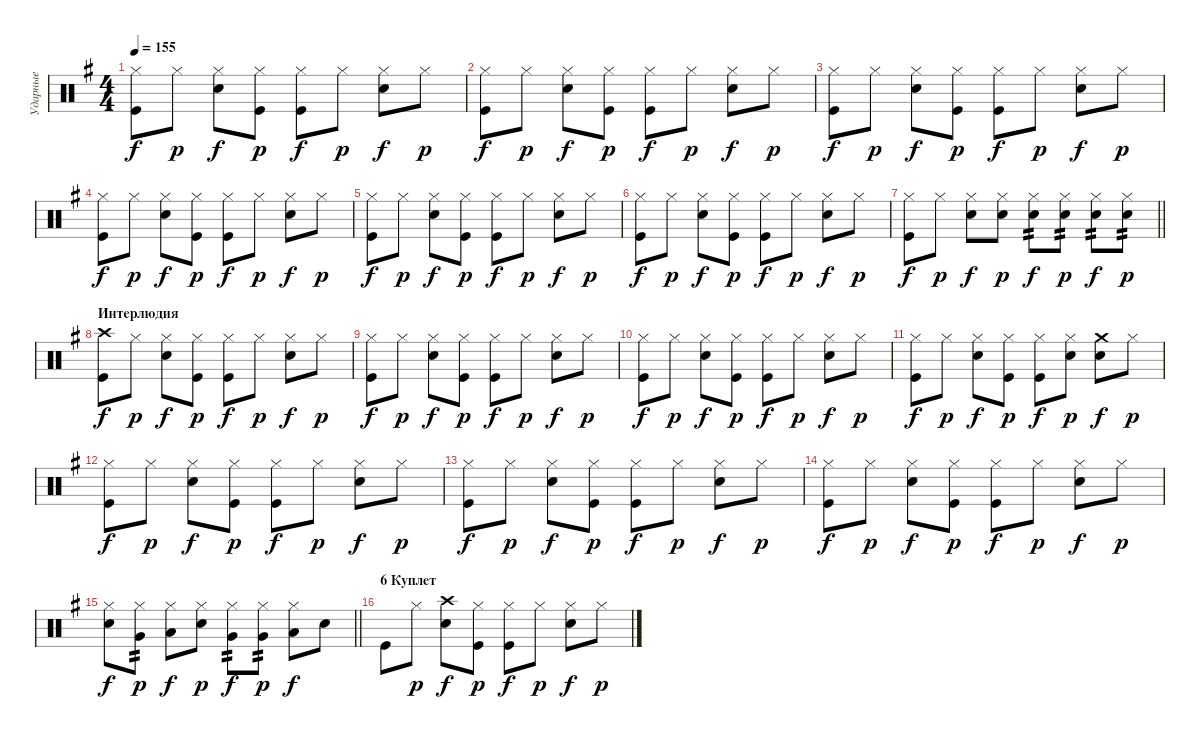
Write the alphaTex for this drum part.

\track ("Ударные" "Ударные") {instrument percussion}
\staff {score}
\articulation defaults
\ts (4 4)
\tempo 155
\clef neutral
\ks eminor
("Hi-Hat (closed)" "Kick (hit)").8{dy f} "Hi-Hat (closed)".8{dy p} ("Hi-Hat (closed)" "Snare (hit) 2").8{dy f} ("Hi-Hat (closed)" "Kick (hit)").8{dy p} ("Hi-Hat (closed)" "Kick (hit)").8{dy f} "Hi-Hat (closed)".8{dy p} ("Hi-Hat (closed)" "Snare (hit) 2").8{dy f} "Hi-Hat (closed)".8{dy p} |
("Hi-Hat (closed)" "Kick (hit)").8{dy f} "Hi-Hat (closed)".8{dy p} ("Hi-Hat (closed)" "Snare (hit) 2").8{dy f} ("Hi-Hat (closed)" "Kick (hit)").8{dy p} ("Hi-Hat (closed)" "Kick (hit)").8{dy f} "Hi-Hat (closed)".8{dy p} ("Hi-Hat (closed)" "Snare (hit) 2").8{dy f} "Hi-Hat (closed)".8{dy p} |
("Hi-Hat (closed)" "Kick (hit)").8{dy f} "Hi-Hat (closed)".8{dy p} ("Hi-Hat (closed)" "Snare (hit) 2").8{dy f} ("Hi-Hat (closed)" "Kick (hit)").8{dy p} ("Hi-Hat (closed)" "Kick (hit)").8{dy f} "Hi-Hat (closed)".8{dy p} ("Hi-Hat (closed)" "Snare (hit) 2").8{dy f} "Hi-Hat (closed)".8{dy p} |
("Hi-Hat (closed)" "Kick (hit)").8{dy f} "Hi-Hat (closed)".8{dy p} ("Hi-Hat (closed)" "Snare (hit) 2").8{dy f} ("Hi-Hat (closed)" "Kick (hit)").8{dy p} ("Hi-Hat (closed)" "Kick (hit)").8{dy f} "Hi-Hat (closed)".8{dy p} ("Hi-Hat (closed)" "Snare (hit) 2").8{dy f} "Hi-Hat (closed)".8{dy p} |
("Hi-Hat (closed)" "Kick (hit)").8{dy f} "Hi-Hat (closed)".8{dy p} ("Hi-Hat (closed)" "Snare (hit) 2").8{dy f} ("Hi-Hat (closed)" "Kick (hit)").8{dy p} ("Hi-Hat (closed)" "Kick (hit)").8{dy f} "Hi-Hat (closed)".8{dy p} ("Hi-Hat (closed)" "Snare (hit) 2").8{dy f} "Hi-Hat (closed)".8{dy p} |
("Hi-Hat (closed)" "Kick (hit)").8{dy f} "Hi-Hat (closed)".8{dy p} ("Hi-Hat (closed)" "Snare (hit) 2").8{dy f} ("Hi-Hat (closed)" "Kick (hit)").8{dy p} ("Hi-Hat (closed)" "Kick (hit)").8{dy f} "Hi-Hat (closed)".8{dy p} ("Hi-Hat (closed)" "Snare (hit) 2").8{dy f} "Hi-Hat (closed)".8{dy p} |
\barLineRight lightlight
("Hi-Hat (closed)" "Kick (hit)").8{dy f} "Hi-Hat (closed)".8{dy p} ("Hi-Hat (closed)" "Snare (hit) 2").8{dy f} ("Hi-Hat (closed)" "Snare (hit) 2").8{dy p} ("Hi-Hat (closed)" "Snare (hit) 2").8{tp 2 dy f} ("Hi-Hat (closed)" "Snare (hit) 2").8{tp 2 dy p} ("Hi-Hat (closed)" "Snare (hit) 2").8{tp 2 dy f} ("Hi-Hat (closed)" "Snare (hit) 2").8{tp 2 dy p} |
\section ("" "Интерлюдия")
("Crash high (hit)" "Kick (hit)").8{dy f} "Hi-Hat (closed)".8{dy p} ("Hi-Hat (closed)" "Snare (hit) 2").8{dy f} ("Hi-Hat (closed)" "Kick (hit)").8{dy p} ("Hi-Hat (closed)" "Kick (hit)").8{dy f} "Hi-Hat (closed)".8{dy p} ("Hi-Hat (closed)" "Snare (hit) 2").8{dy f} "Hi-Hat (closed)".8{dy p} |
("Hi-Hat (closed)" "Kick (hit)").8{dy f} "Hi-Hat (closed)".8{dy p} ("Hi-Hat (closed)" "Snare (hit) 2").8{dy f} ("Hi-Hat (closed)" "Kick (hit)").8{dy p} ("Hi-Hat (closed)" "Kick (hit)").8{dy f} "Hi-Hat (closed)".8{dy p} ("Hi-Hat (closed)" "Snare (hit) 2").8{dy f} "Hi-Hat (closed)".8{dy p} |
("Hi-Hat (closed)" "Kick (hit)").8{dy f} "Hi-Hat (closed)".8{dy p} ("Hi-Hat (closed)" "Snare (hit) 2").8{dy f} ("Hi-Hat (closed)" "Kick (hit)").8{dy p} ("Hi-Hat (closed)" "Kick (hit)").8{dy f} "Hi-Hat (closed)".8{dy p} ("Hi-Hat (closed)" "Snare (hit) 2").8{dy f} "Hi-Hat (closed)".8{dy p} |
("Hi-Hat (closed)" "Kick (hit)").8{dy f} "Hi-Hat (closed)".8{dy p} ("Hi-Hat (closed)" "Snare (hit) 2").8{dy f} ("Hi-Hat (closed)" "Kick (hit)").8{dy p} ("Hi-Hat (closed)" "Kick (hit)").8{dy f} ("Hi-Hat (closed)" "Snare (hit) 2").8{dy p} ("Crash medium (hit)" "Snare (hit) 2").8{dy f} "Hi-Hat (closed)".8{dy p} |
("Hi-Hat (closed)" "Kick (hit)").8{dy f} "Hi-Hat (closed)".8{dy p} ("Hi-Hat (closed)" "Snare (hit) 2").8{dy f} ("Hi-Hat (closed)" "Kick (hit)").8{dy p} ("Hi-Hat (closed)" "Kick (hit)").8{dy f} "Hi-Hat (closed)".8{dy p} ("Hi-Hat (closed)" "Snare (hit) 2").8{dy f} "Hi-Hat (closed)".8{dy p} |
("Hi-Hat (closed)" "Kick (hit)").8{dy f} "Hi-Hat (closed)".8{dy p} ("Hi-Hat (closed)" "Snare (hit) 2").8{dy f} ("Hi-Hat (closed)" "Kick (hit)").8{dy p} ("Hi-Hat (closed)" "Kick (hit)").8{dy f} "Hi-Hat (closed)".8{dy p} ("Hi-Hat (closed)" "Snare (hit) 2").8{dy f} "Hi-Hat (closed)".8{dy p} |
("Hi-Hat (closed)" "Kick (hit)").8{dy f} "Hi-Hat (closed)".8{dy p} ("Hi-Hat (closed)" "Snare (hit) 2").8{dy f} ("Hi-Hat (closed)" "Kick (hit)").8{dy p} ("Hi-Hat (closed)" "Kick (hit)").8{dy f} "Hi-Hat (closed)".8{dy p} ("Hi-Hat (closed)" "Snare (hit) 2").8{dy f} "Hi-Hat (closed)".8{dy p} |
\barLineRight lightlight
("Hi-Hat (closed)" "Snare (hit) 2").8{dy f} ("Hi-Hat (closed)" "Very Low Tom (hit)").8{tp 2 dy p} ("Hi-Hat (closed)" "Low Floor Tom (hit)").8{dy f} ("Hi-Hat (closed)" "Snare (hit) 2").8{dy p} ("Hi-Hat (closed)" "Very Low Tom (hit)").8{tp 2 dy f} ("Hi-Hat (closed)" "Very Low Tom (hit)").8{tp 2 dy p} ("Hi-Hat (closed)" "Low Floor Tom (hit)").8{dy f} "Snare (hit) 2".8 |
\section ("" "6 Куплет")
"Kick (hit)".8 "Hi-Hat (closed)".8{dy p} ("Crash high (hit)" "Snare (hit) 2").8{dy f} ("Hi-Hat (closed)" "Kick (hit)").8{dy p} ("Hi-Hat (closed)" "Kick (hit)").8{dy f} "Hi-Hat (closed)".8{dy p} ("Hi-Hat (closed)" "Snare (hit) 2").8{dy f} "Hi-Hat (closed)".8{dy p}
